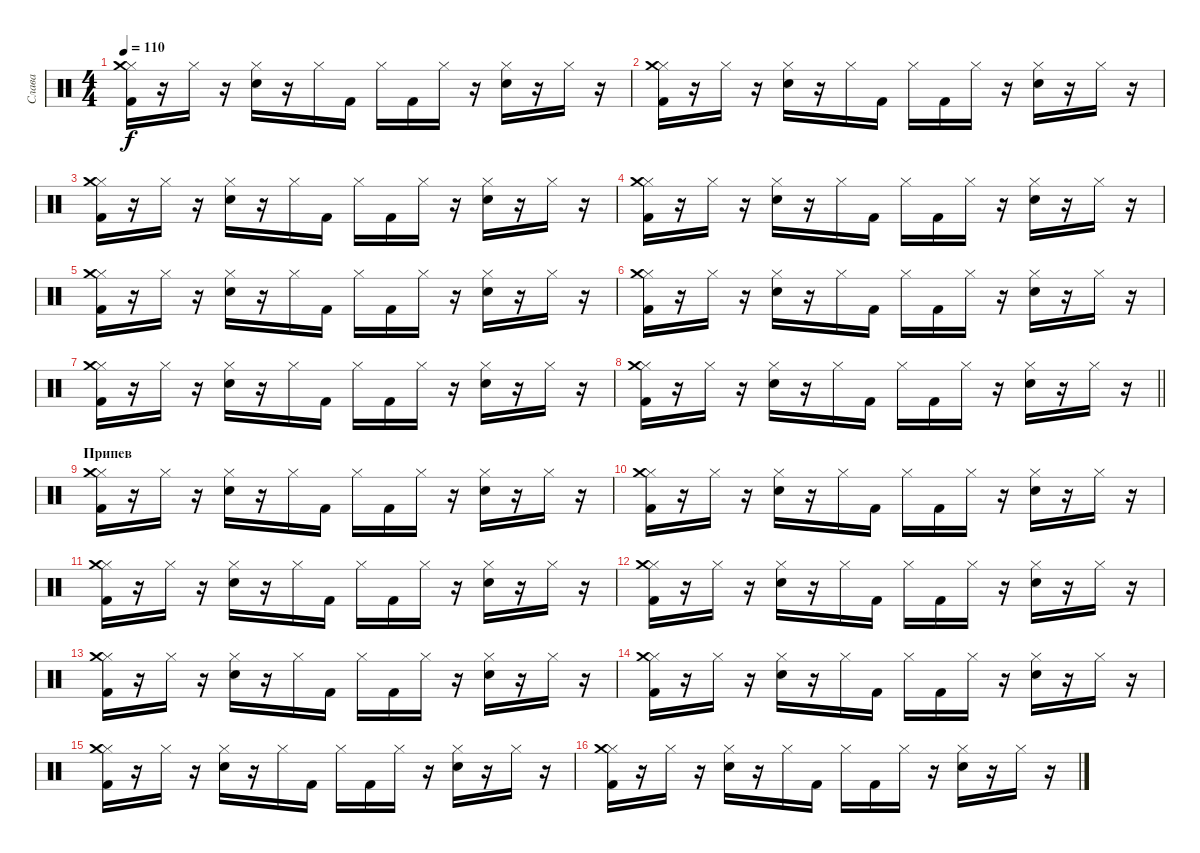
\track ("Слава" "Слава") {instrument percussion}
\staff {score}
\articulation defaults
\ts (4 4)
\tempo 110
\clef neutral
\ks c
("Hi-Hat (closed)" "Crash medium (hit)" "Kick (hit) 2").16{dy f} r.16 "Hi-Hat (closed)".16 r.16 ("Hi-Hat (closed)" "Electric Snare (hit)").16 r.16 "Hi-Hat (closed)".16 "Kick (hit) 2".16 "Hi-Hat (closed)".16 "Kick (hit) 2".16 "Hi-Hat (closed)".16 r.16 ("Hi-Hat (closed)" "Electric Snare (hit)").16 r.16 "Hi-Hat (closed)".16 r.16 |
("Hi-Hat (closed)" "Crash medium (hit)" "Kick (hit) 2").16 r.16 "Hi-Hat (closed)".16 r.16 ("Hi-Hat (closed)" "Electric Snare (hit)").16 r.16 "Hi-Hat (closed)".16 "Kick (hit) 2".16 "Hi-Hat (closed)".16 "Kick (hit) 2".16 "Hi-Hat (closed)".16 r.16 ("Hi-Hat (closed)" "Electric Snare (hit)").16 r.16 "Hi-Hat (closed)".16 r.16 |
("Hi-Hat (closed)" "Crash medium (hit)" "Kick (hit) 2").16 r.16 "Hi-Hat (closed)".16 r.16 ("Hi-Hat (closed)" "Electric Snare (hit)").16 r.16 "Hi-Hat (closed)".16 "Kick (hit) 2".16 "Hi-Hat (closed)".16 "Kick (hit) 2".16 "Hi-Hat (closed)".16 r.16 ("Hi-Hat (closed)" "Electric Snare (hit)").16 r.16 "Hi-Hat (closed)".16 r.16 |
("Hi-Hat (closed)" "Crash medium (hit)" "Kick (hit) 2").16 r.16 "Hi-Hat (closed)".16 r.16 ("Hi-Hat (closed)" "Electric Snare (hit)").16 r.16 "Hi-Hat (closed)".16 "Kick (hit) 2".16 "Hi-Hat (closed)".16 "Kick (hit) 2".16 "Hi-Hat (closed)".16 r.16 ("Hi-Hat (closed)" "Electric Snare (hit)").16 r.16 "Hi-Hat (closed)".16 r.16 |
("Hi-Hat (closed)" "Crash medium (hit)" "Kick (hit) 2").16 r.16 "Hi-Hat (closed)".16 r.16 ("Hi-Hat (closed)" "Electric Snare (hit)").16 r.16 "Hi-Hat (closed)".16 "Kick (hit) 2".16 "Hi-Hat (closed)".16 "Kick (hit) 2".16 "Hi-Hat (closed)".16 r.16 ("Hi-Hat (closed)" "Electric Snare (hit)").16 r.16 "Hi-Hat (closed)".16 r.16 |
("Hi-Hat (closed)" "Crash medium (hit)" "Kick (hit) 2").16 r.16 "Hi-Hat (closed)".16 r.16 ("Hi-Hat (closed)" "Electric Snare (hit)").16 r.16 "Hi-Hat (closed)".16 "Kick (hit) 2".16 "Hi-Hat (closed)".16 "Kick (hit) 2".16 "Hi-Hat (closed)".16 r.16 ("Hi-Hat (closed)" "Electric Snare (hit)").16 r.16 "Hi-Hat (closed)".16 r.16 |
("Hi-Hat (closed)" "Crash medium (hit)" "Kick (hit) 2").16 r.16 "Hi-Hat (closed)".16 r.16 ("Hi-Hat (closed)" "Electric Snare (hit)").16 r.16 "Hi-Hat (closed)".16 "Kick (hit) 2".16 "Hi-Hat (closed)".16 "Kick (hit) 2".16 "Hi-Hat (closed)".16 r.16 ("Hi-Hat (closed)" "Electric Snare (hit)").16 r.16 "Hi-Hat (closed)".16 r.16 |
\barLineRight lightlight
("Hi-Hat (closed)" "Crash medium (hit)" "Kick (hit) 2").16 r.16 "Hi-Hat (closed)".16 r.16 ("Hi-Hat (closed)" "Electric Snare (hit)").16 r.16 "Hi-Hat (closed)".16 "Kick (hit) 2".16 "Hi-Hat (closed)".16 "Kick (hit) 2".16 "Hi-Hat (closed)".16 r.16 ("Hi-Hat (closed)" "Electric Snare (hit)").16 r.16 "Hi-Hat (closed)".16 r.16 |
\section ("" "Припев")
("Hi-Hat (closed)" "Crash medium (hit)" "Kick (hit) 2").16 r.16 "Hi-Hat (closed)".16 r.16 ("Hi-Hat (closed)" "Electric Snare (hit)").16 r.16 "Hi-Hat (closed)".16 "Kick (hit) 2".16 "Hi-Hat (closed)".16 "Kick (hit) 2".16 "Hi-Hat (closed)".16 r.16 ("Hi-Hat (closed)" "Electric Snare (hit)").16 r.16 "Hi-Hat (closed)".16 r.16 |
("Hi-Hat (closed)" "Crash medium (hit)" "Kick (hit) 2").16 r.16 "Hi-Hat (closed)".16 r.16 ("Hi-Hat (closed)" "Electric Snare (hit)").16 r.16 "Hi-Hat (closed)".16 "Kick (hit) 2".16 "Hi-Hat (closed)".16 "Kick (hit) 2".16 "Hi-Hat (closed)".16 r.16 ("Hi-Hat (closed)" "Electric Snare (hit)").16 r.16 "Hi-Hat (closed)".16 r.16 |
("Hi-Hat (closed)" "Crash medium (hit)" "Kick (hit) 2").16 r.16 "Hi-Hat (closed)".16 r.16 ("Hi-Hat (closed)" "Electric Snare (hit)").16 r.16 "Hi-Hat (closed)".16 "Kick (hit) 2".16 "Hi-Hat (closed)".16 "Kick (hit) 2".16 "Hi-Hat (closed)".16 r.16 ("Hi-Hat (closed)" "Electric Snare (hit)").16 r.16 "Hi-Hat (closed)".16 r.16 |
("Hi-Hat (closed)" "Crash medium (hit)" "Kick (hit) 2").16 r.16 "Hi-Hat (closed)".16 r.16 ("Hi-Hat (closed)" "Electric Snare (hit)").16 r.16 "Hi-Hat (closed)".16 "Kick (hit) 2".16 "Hi-Hat (closed)".16 "Kick (hit) 2".16 "Hi-Hat (closed)".16 r.16 ("Hi-Hat (closed)" "Electric Snare (hit)").16 r.16 "Hi-Hat (closed)".16 r.16 |
("Hi-Hat (closed)" "Crash medium (hit)" "Kick (hit) 2").16 r.16 "Hi-Hat (closed)".16 r.16 ("Hi-Hat (closed)" "Electric Snare (hit)").16 r.16 "Hi-Hat (closed)".16 "Kick (hit) 2".16 "Hi-Hat (closed)".16 "Kick (hit) 2".16 "Hi-Hat (closed)".16 r.16 ("Hi-Hat (closed)" "Electric Snare (hit)").16 r.16 "Hi-Hat (closed)".16 r.16 |
("Hi-Hat (closed)" "Crash medium (hit)" "Kick (hit) 2").16 r.16 "Hi-Hat (closed)".16 r.16 ("Hi-Hat (closed)" "Electric Snare (hit)").16 r.16 "Hi-Hat (closed)".16 "Kick (hit) 2".16 "Hi-Hat (closed)".16 "Kick (hit) 2".16 "Hi-Hat (closed)".16 r.16 ("Hi-Hat (closed)" "Electric Snare (hit)").16 r.16 "Hi-Hat (closed)".16 r.16 |
("Hi-Hat (closed)" "Crash medium (hit)" "Kick (hit) 2").16 r.16 "Hi-Hat (closed)".16 r.16 ("Hi-Hat (closed)" "Electric Snare (hit)").16 r.16 "Hi-Hat (closed)".16 "Kick (hit) 2".16 "Hi-Hat (closed)".16 "Kick (hit) 2".16 "Hi-Hat (closed)".16 r.16 ("Hi-Hat (closed)" "Electric Snare (hit)").16 r.16 "Hi-Hat (closed)".16 r.16 |
("Hi-Hat (closed)" "Crash medium (hit)" "Kick (hit) 2").16 r.16 "Hi-Hat (closed)".16 r.16 ("Hi-Hat (closed)" "Electric Snare (hit)").16 r.16 "Hi-Hat (closed)".16 "Kick (hit) 2".16 "Hi-Hat (closed)".16 "Kick (hit) 2".16 "Hi-Hat (closed)".16 r.16 ("Hi-Hat (closed)" "Electric Snare (hit)").16 r.16 "Hi-Hat (closed)".16 r.16
